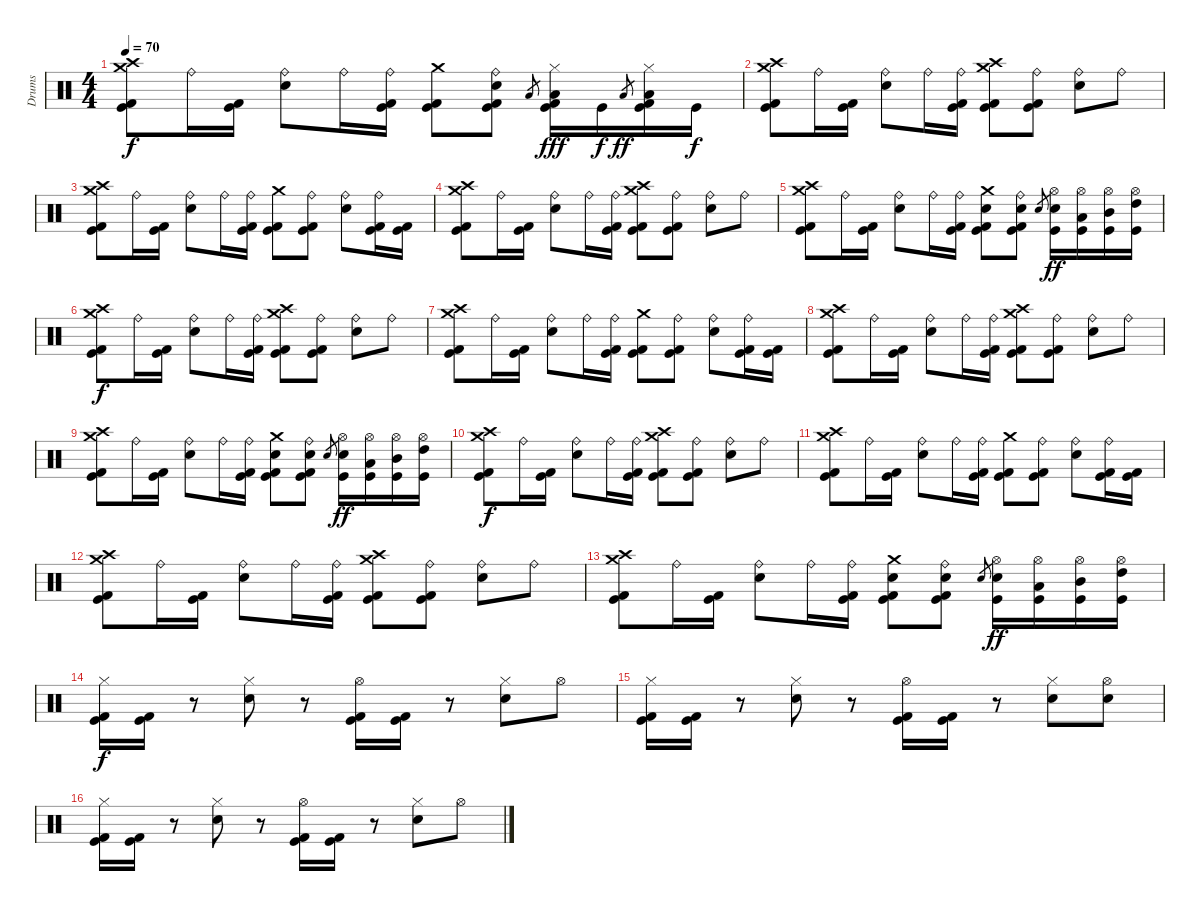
\track ("Drums" "Drums") {instrument percussion}
\staff {score}
\articulation defaults
\ts (4 4)
\tempo 70
\clef neutral
\ks c
("Crash medium (hit)" "Crash high (hit)" "Kick (hit) 2" "Kick (hit)").8{dy f} "Ride (bell)".16 ("Kick (hit) 2" "Kick (hit)").16 ("Ride (bell)" "Electric Snare (hit)").8 "Ride (bell)".16 ("Ride (bell)" "Kick (hit) 2" "Kick (hit)").16 ("Crash medium (hit)" "Kick (hit) 2" "Kick (hit)").8 ("Ride (bell)" "Electric Snare (hit)" "Kick (hit) 2" "Kick (hit)").8 "Low Tom (hit)".8{gr} ("Hi-Hat (closed)" "Low Tom (hit)" "Kick (hit) 2" "Kick (hit)").16{dy fff} "Kick (hit)".16{dy f} "Low Tom (hit)".8{gr dy ff} ("Hi-Hat (closed)" "Low Tom (hit)" "Kick (hit) 2" "Kick (hit)").16 "Kick (hit)".16{dy f} |
("Crash medium (hit)" "Crash high (hit)" "Kick (hit) 2" "Kick (hit)").8 "Ride (bell)".16 ("Kick (hit) 2" "Kick (hit)").16 ("Ride (bell)" "Electric Snare (hit)").8 "Ride (bell)".16 ("Ride (bell)" "Kick (hit) 2" "Kick (hit)").16 ("Crash medium (hit)" "Crash high (hit)" "Kick (hit) 2" "Kick (hit)").8 ("Ride (bell)" "Kick (hit) 2" "Kick (hit)").8 ("Ride (bell)" "Electric Snare (hit)").8 "Ride (bell)".8 |
("Crash medium (hit)" "Crash high (hit)" "Kick (hit) 2" "Kick (hit)").8 "Ride (bell)".16 ("Kick (hit) 2" "Kick (hit)").16 ("Ride (bell)" "Electric Snare (hit)").8 "Ride (bell)".16 ("Ride (bell)" "Kick (hit) 2" "Kick (hit)").16 ("Crash medium (hit)" "Kick (hit) 2" "Kick (hit)").8 ("Ride (bell)" "Kick (hit) 2" "Kick (hit)").8 ("Ride (bell)" "Electric Snare (hit)").8 ("Ride (bell)" "Kick (hit) 2" "Kick (hit)").16 ("Kick (hit) 2" "Kick (hit)").16 |
("Crash medium (hit)" "Crash high (hit)" "Kick (hit) 2" "Kick (hit)").8 "Ride (bell)".16 ("Kick (hit) 2" "Kick (hit)").16 ("Ride (bell)" "Electric Snare (hit)").8 "Ride (bell)".16 ("Ride (bell)" "Kick (hit) 2" "Kick (hit)").16 ("Crash medium (hit)" "Crash high (hit)" "Kick (hit) 2" "Kick (hit)").8 ("Ride (bell)" "Kick (hit) 2" "Kick (hit)").8 ("Ride (bell)" "Electric Snare (hit)").8 "Ride (bell)".8 |
("Crash medium (hit)" "Crash high (hit)" "Kick (hit) 2" "Kick (hit)").8 "Ride (bell)".16 ("Kick (hit) 2" "Kick (hit)").16 ("Ride (bell)" "Electric Snare (hit)").8 "Ride (bell)".16 ("Ride (bell)" "Kick (hit) 2" "Kick (hit)").16 ("Crash medium (hit)" "Electric Snare (hit)" "Kick (hit) 2" "Kick (hit)").8 ("Ride (bell)" "Electric Snare (hit)" "Kick (hit) 2" "Kick (hit)").8 "Electric Snare (hit)".8{gr} ("Hi-Hat (open)" "Electric Snare (hit)" "Kick (hit)").16{dy ff} ("Hi-Hat (open)" "Low Tom (hit)" "Kick (hit)").16 ("Hi-Hat (open)" "Mid Tom (hit)" "Kick (hit)").16 ("Hi-Hat (open)" "High Tom (hit)" "Kick (hit)").16 |
("Crash medium (hit)" "Crash high (hit)" "Kick (hit) 2" "Kick (hit)").8{dy f} "Ride (bell)".16 ("Kick (hit) 2" "Kick (hit)").16 ("Ride (bell)" "Electric Snare (hit)").8 "Ride (bell)".16 ("Ride (bell)" "Kick (hit) 2" "Kick (hit)").16 ("Crash medium (hit)" "Crash high (hit)" "Kick (hit) 2" "Kick (hit)").8 ("Ride (bell)" "Kick (hit) 2" "Kick (hit)").8 ("Ride (bell)" "Electric Snare (hit)").8 "Ride (bell)".8 |
("Crash medium (hit)" "Crash high (hit)" "Kick (hit) 2" "Kick (hit)").8 "Ride (bell)".16 ("Kick (hit) 2" "Kick (hit)").16 ("Ride (bell)" "Electric Snare (hit)").8 "Ride (bell)".16 ("Ride (bell)" "Kick (hit) 2" "Kick (hit)").16 ("Crash medium (hit)" "Kick (hit) 2" "Kick (hit)").8 ("Ride (bell)" "Kick (hit) 2" "Kick (hit)").8 ("Ride (bell)" "Electric Snare (hit)").8 ("Ride (bell)" "Kick (hit) 2" "Kick (hit)").16 ("Kick (hit) 2" "Kick (hit)").16 |
("Crash medium (hit)" "Crash high (hit)" "Kick (hit) 2" "Kick (hit)").8 "Ride (bell)".16 ("Kick (hit) 2" "Kick (hit)").16 ("Ride (bell)" "Electric Snare (hit)").8 "Ride (bell)".16 ("Ride (bell)" "Kick (hit) 2" "Kick (hit)").16 ("Crash medium (hit)" "Crash high (hit)" "Kick (hit) 2" "Kick (hit)").8 ("Ride (bell)" "Kick (hit) 2" "Kick (hit)").8 ("Ride (bell)" "Electric Snare (hit)").8 "Ride (bell)".8 |
("Crash medium (hit)" "Crash high (hit)" "Kick (hit) 2" "Kick (hit)").8 "Ride (bell)".16 ("Kick (hit) 2" "Kick (hit)").16 ("Ride (bell)" "Electric Snare (hit)").8 "Ride (bell)".16 ("Ride (bell)" "Kick (hit) 2" "Kick (hit)").16 ("Crash medium (hit)" "Electric Snare (hit)" "Kick (hit) 2" "Kick (hit)").8 ("Ride (bell)" "Electric Snare (hit)" "Kick (hit) 2" "Kick (hit)").8 "Electric Snare (hit)".8{gr} ("Hi-Hat (open)" "Electric Snare (hit)" "Kick (hit)").16{dy ff} ("Hi-Hat (open)" "Low Tom (hit)" "Kick (hit)").16 ("Hi-Hat (open)" "Mid Tom (hit)" "Kick (hit)").16 ("Hi-Hat (open)" "High Tom (hit)" "Kick (hit)").16 |
("Crash medium (hit)" "Crash high (hit)" "Kick (hit) 2" "Kick (hit)").8{dy f} "Ride (bell)".16 ("Kick (hit) 2" "Kick (hit)").16 ("Ride (bell)" "Electric Snare (hit)").8 "Ride (bell)".16 ("Ride (bell)" "Kick (hit) 2" "Kick (hit)").16 ("Crash medium (hit)" "Crash high (hit)" "Kick (hit) 2" "Kick (hit)").8 ("Ride (bell)" "Kick (hit) 2" "Kick (hit)").8 ("Ride (bell)" "Electric Snare (hit)").8 "Ride (bell)".8 |
("Crash medium (hit)" "Crash high (hit)" "Kick (hit) 2" "Kick (hit)").8 "Ride (bell)".16 ("Kick (hit) 2" "Kick (hit)").16 ("Ride (bell)" "Electric Snare (hit)").8 "Ride (bell)".16 ("Ride (bell)" "Kick (hit) 2" "Kick (hit)").16 ("Crash medium (hit)" "Kick (hit) 2" "Kick (hit)").8 ("Ride (bell)" "Kick (hit) 2" "Kick (hit)").8 ("Ride (bell)" "Electric Snare (hit)").8 ("Ride (bell)" "Kick (hit) 2" "Kick (hit)").16 ("Kick (hit) 2" "Kick (hit)").16 |
("Crash medium (hit)" "Crash high (hit)" "Kick (hit) 2" "Kick (hit)").8 "Ride (bell)".16 ("Kick (hit) 2" "Kick (hit)").16 ("Ride (bell)" "Electric Snare (hit)").8 "Ride (bell)".16 ("Ride (bell)" "Kick (hit) 2" "Kick (hit)").16 ("Crash medium (hit)" "Crash high (hit)" "Kick (hit) 2" "Kick (hit)").8 ("Ride (bell)" "Kick (hit) 2" "Kick (hit)").8 ("Ride (bell)" "Electric Snare (hit)").8 "Ride (bell)".8 |
("Crash medium (hit)" "Crash high (hit)" "Kick (hit) 2" "Kick (hit)").8 "Ride (bell)".16 ("Kick (hit) 2" "Kick (hit)").16 ("Ride (bell)" "Electric Snare (hit)").8 "Ride (bell)".16 ("Ride (bell)" "Kick (hit) 2" "Kick (hit)").16 ("Crash medium (hit)" "Electric Snare (hit)" "Kick (hit) 2" "Kick (hit)").8 ("Ride (bell)" "Electric Snare (hit)" "Kick (hit) 2" "Kick (hit)").8 "Electric Snare (hit)".8{gr} ("Hi-Hat (open)" "Electric Snare (hit)" "Kick (hit)").16{dy ff} ("Hi-Hat (open)" "Low Tom (hit)" "Kick (hit)").16 ("Hi-Hat (open)" "Mid Tom (hit)" "Kick (hit)").16 ("Hi-Hat (open)" "High Tom (hit)" "Kick (hit)").16 |
("Hi-Hat (closed)" "Kick (hit) 2" "Kick (hit)").16{dy f} ("Kick (hit) 2" "Kick (hit)").16 r.8 ("Hi-Hat (closed)" "Electric Snare (hit)").8 r.8 ("Hi-Hat (open)" "Kick (hit) 2" "Kick (hit)").16 ("Kick (hit) 2" "Kick (hit)").16 r.8 ("Hi-Hat (closed)" "Electric Snare (hit)").8 "Hi-Hat (open)".8 |
("Hi-Hat (closed)" "Kick (hit) 2" "Kick (hit)").16 ("Kick (hit) 2" "Kick (hit)").16 r.8 ("Hi-Hat (closed)" "Electric Snare (hit)").8 r.8 ("Hi-Hat (open)" "Kick (hit) 2" "Kick (hit)").16 ("Kick (hit) 2" "Kick (hit)").16 r.8 ("Hi-Hat (closed)" "Electric Snare (hit)").8 ("Hi-Hat (open)" "Electric Snare (hit)").8 |
("Hi-Hat (closed)" "Kick (hit) 2" "Kick (hit)").16 ("Kick (hit) 2" "Kick (hit)").16 r.8 ("Hi-Hat (closed)" "Electric Snare (hit)").8 r.8 ("Hi-Hat (open)" "Kick (hit) 2" "Kick (hit)").16 ("Kick (hit) 2" "Kick (hit)").16 r.8 ("Hi-Hat (closed)" "Electric Snare (hit)").8 "Hi-Hat (open)".8
